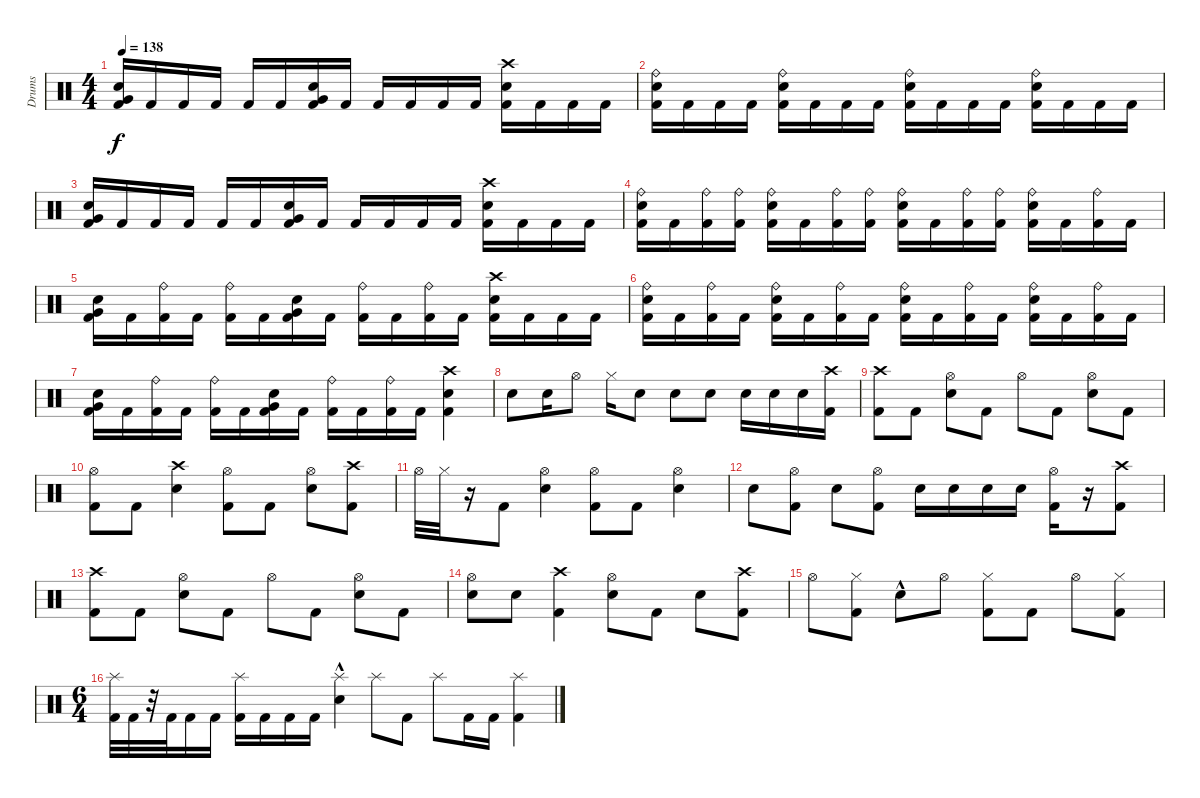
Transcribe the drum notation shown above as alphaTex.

\track ("Drums" "Drums") {instrument percussion}
\staff {score}
\articulation defaults
\ts (4 4)
\tempo 138
\clef neutral
\ks c
("Kick (hit) 2" "Electric Snare (hit)" "Very Low Tom (hit)").16{dy f} "Kick (hit) 2".16 "Kick (hit) 2".16 "Kick (hit) 2".16 "Kick (hit) 2".16 "Kick (hit) 2".16 ("Kick (hit) 2" "Electric Snare (hit)" "Very Low Tom (hit)").16 "Kick (hit) 2".16 "Kick (hit) 2".16 "Kick (hit) 2".16 "Kick (hit) 2".16 "Kick (hit) 2".16 ("Kick (hit) 2" "Electric Snare (hit)" "Crash high (hit)").16 "Kick (hit) 2".16 "Kick (hit) 2".16 "Kick (hit) 2".16 |
("Kick (hit) 2" "Electric Snare (hit)" "Ride (bell)").16 "Kick (hit) 2".16 "Kick (hit) 2".16 "Kick (hit) 2".16 ("Kick (hit) 2" "Electric Snare (hit)" "Ride (bell)").16 "Kick (hit) 2".16 "Kick (hit) 2".16 "Kick (hit) 2".16 ("Kick (hit) 2" "Electric Snare (hit)" "Ride (bell)").16 "Kick (hit) 2".16 "Kick (hit) 2".16 "Kick (hit) 2".16 ("Kick (hit) 2" "Electric Snare (hit)" "Ride (bell)").16 "Kick (hit) 2".16 "Kick (hit) 2".16 "Kick (hit) 2".16 |
("Very Low Tom (hit)" "Electric Snare (hit)" "Kick (hit) 2").16 "Kick (hit) 2".16 "Kick (hit) 2".16 "Kick (hit) 2".16 "Kick (hit) 2".16 "Kick (hit) 2".16 ("Kick (hit) 2" "Electric Snare (hit)" "Very Low Tom (hit)").16 "Kick (hit) 2".16 "Kick (hit) 2".16 "Kick (hit) 2".16 "Kick (hit) 2".16 "Kick (hit) 2".16 ("Kick (hit) 2" "Electric Snare (hit)" "Crash high (hit)").16 "Kick (hit) 2".16 "Kick (hit) 2".16 "Kick (hit) 2".16 |
("Kick (hit) 2" "Electric Snare (hit)" "Ride (bell)").16 "Kick (hit) 2".16 ("Kick (hit) 2" "Ride (bell)").16 ("Kick (hit) 2" "Ride (bell)").16 ("Kick (hit) 2" "Electric Snare (hit)" "Ride (bell)").16 "Kick (hit) 2".16 ("Kick (hit) 2" "Ride (bell)").16 ("Kick (hit) 2" "Ride (bell)").16 ("Kick (hit) 2" "Electric Snare (hit)" "Ride (bell)").16 "Kick (hit) 2".16 ("Kick (hit) 2" "Ride (bell)").16 ("Kick (hit) 2" "Ride (bell)").16 ("Kick (hit) 2" "Electric Snare (hit)" "Ride (bell)").16 "Kick (hit) 2".16 ("Kick (hit) 2" "Ride (bell)").16 "Kick (hit) 2".16 |
("Very Low Tom (hit)" "Electric Snare (hit)" "Kick (hit) 2").16 "Kick (hit) 2".16 ("Kick (hit) 2" "Ride (bell)").16 "Kick (hit) 2".16 ("Kick (hit) 2" "Ride (bell)").16 "Kick (hit) 2".16 ("Kick (hit) 2" "Electric Snare (hit)" "Very Low Tom (hit)").16 "Kick (hit) 2".16 ("Kick (hit) 2" "Ride (bell)").16 "Kick (hit) 2".16 ("Kick (hit) 2" "Ride (bell)").16 "Kick (hit) 2".16 ("Kick (hit) 2" "Electric Snare (hit)" "Crash high (hit)").16 "Kick (hit) 2".16 "Kick (hit) 2".16 "Kick (hit) 2".16 |
("Kick (hit) 2" "Electric Snare (hit)" "Ride (bell)").16 "Kick (hit) 2".16 ("Kick (hit) 2" "Ride (bell)").16 "Kick (hit) 2".16 ("Kick (hit) 2" "Electric Snare (hit)" "Ride (bell)").16 "Kick (hit) 2".16 ("Kick (hit) 2" "Ride (bell)").16 "Kick (hit) 2".16 ("Kick (hit) 2" "Electric Snare (hit)" "Ride (bell)").16 "Kick (hit) 2".16 ("Kick (hit) 2" "Ride (bell)").16 "Kick (hit) 2".16 ("Kick (hit) 2" "Electric Snare (hit)" "Ride (bell)").16 "Kick (hit) 2".16 ("Kick (hit) 2" "Ride (bell)").16 "Kick (hit) 2".16 |
("Kick (hit) 2" "Electric Snare (hit)" "Very Low Tom (hit)").16 "Kick (hit) 2".16 ("Kick (hit) 2" "Ride (bell)").16 "Kick (hit) 2".16 ("Kick (hit) 2" "Ride (bell)").16 "Kick (hit) 2".16 ("Kick (hit) 2" "Electric Snare (hit)" "Very Low Tom (hit)").16 "Kick (hit) 2".16 ("Kick (hit) 2" "Ride (bell)").16 "Kick (hit) 2".16 ("Kick (hit) 2" "Ride (bell)").16 "Kick (hit) 2".16 ("Kick (hit) 2" "Electric Snare (hit)" "Crash high (hit)").4 |
"Electric Snare (hit)".8 "Electric Snare (hit)".16 "Hi-Hat (open)".8 "Hi-Hat (closed)".16 "Electric Snare (hit)".8 "Electric Snare (hit)".8 "Electric Snare (hit)".8 "Electric Snare (hit)".16 "Electric Snare (hit)".16 "Electric Snare (hit)".16 ("Kick (hit) 2" "Crash high (hit)").16 |
("Crash high (hit)" "Kick (hit) 2").8 "Kick (hit) 2".8 ("Electric Snare (hit)" "Hi-Hat (open)").8 "Kick (hit) 2".8 "Hi-Hat (open)".8 "Kick (hit) 2".8 ("Electric Snare (hit)" "Hi-Hat (open)").8 "Kick (hit) 2".8 |
("Kick (hit) 2" "Hi-Hat (open)").8 "Kick (hit) 2".8 ("Electric Snare (hit)" "Crash high (hit)").4 ("Kick (hit) 2" "Hi-Hat (open)").8 "Kick (hit) 2".8 ("Electric Snare (hit)" "Hi-Hat (open)").8 ("Kick (hit) 2" "Crash high (hit)").8 |
"Hi-Hat (open)".32 "Hi-Hat (closed)".32 r.16 "Kick (hit) 2".8 ("Hi-Hat (open)" "Electric Snare (hit)").4 ("Hi-Hat (open)" "Kick (hit) 2").8 "Kick (hit) 2".8 ("Hi-Hat (open)" "Electric Snare (hit)").4 |
"Electric Snare (hit)".8 ("Kick (hit) 2" "Hi-Hat (open)").8 "Electric Snare (hit)".8 ("Kick (hit) 2" "Hi-Hat (open)").8 "Electric Snare (hit)".16 "Electric Snare (hit)".16 "Electric Snare (hit)".16 "Electric Snare (hit)".16 ("Kick (hit) 2" "Hi-Hat (open)").16 r.16 ("Crash high (hit)" "Kick (hit) 2").8 |
("Kick (hit) 2" "Crash high (hit)").8 "Kick (hit) 2".8 ("Electric Snare (hit)" "Hi-Hat (open)").8 "Kick (hit) 2".8 "Hi-Hat (open)".8 "Kick (hit) 2".8 ("Electric Snare (hit)" "Hi-Hat (open)").8 "Kick (hit) 2".8 |
("Electric Snare (hit)" "Hi-Hat (open)").8 "Electric Snare (hit)".8 ("Crash high (hit)" "Kick (hit) 2").4 ("Electric Snare (hit)" "Hi-Hat (open)").8 "Kick (hit) 2".8 "Electric Snare (hit)".8 ("Crash high (hit)" "Kick (hit) 2").8 |
"Hi-Hat (open)".8 ("Kick (hit) 2" "Hi-Hat (closed)").8 "Electric Snare (hit)"{hac}.8 "Hi-Hat (open)".8 ("Kick (hit) 2" "Hi-Hat (closed)").8 "Kick (hit) 2".8 "Hi-Hat (open)".8 ("Kick (hit) 2" "Hi-Hat (closed)").8 |
\ts (6 4)
("Kick (hit) 2" "Splash (hit)").32 "Kick (hit) 2".32 r.32 "Kick (hit) 2".32 "Kick (hit) 2".16 "Kick (hit) 2".16 ("Kick (hit) 2" "Splash (hit)").16 "Kick (hit) 2".16 "Kick (hit) 2".16 "Kick (hit) 2".16 ("Electric Snare (hit)"{hac} "Splash (hit)").4 "Splash (hit)".8 "Kick (hit) 2".8 "Splash (hit)".8 "Kick (hit) 2".16 "Kick (hit) 2".16 ("Splash (hit)" "Kick (hit) 2").4
